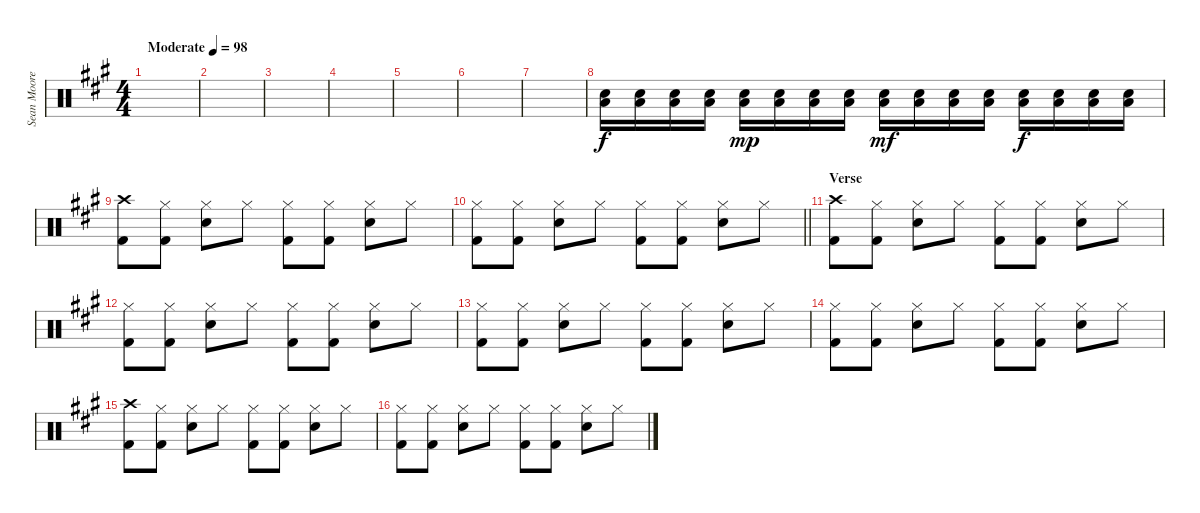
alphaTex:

\track ("Sean Moore (Drums)" "Sean Moore") {instrument percussion}
\staff {score}
\articulation defaults
\ts (4 4)
\tempo (98 "Moderate")
\clef neutral
\ks a
|
|
|
|
|
|
|
("Electric Snare (hit)" "Low Floor Tom (hit)").16 ("Electric Snare (hit)" "Low Floor Tom (hit)").16 ("Electric Snare (hit)" "Low Floor Tom (hit)").16 ("Electric Snare (hit)" "Low Floor Tom (hit)").16 ("Electric Snare (hit)" "Low Floor Tom (hit)").16{dy mp} ("Electric Snare (hit)" "Low Floor Tom (hit)").16 ("Electric Snare (hit)" "Low Floor Tom (hit)").16 ("Electric Snare (hit)" "Low Floor Tom (hit)").16 ("Electric Snare (hit)" "Low Floor Tom (hit)").16{dy mf} ("Electric Snare (hit)" "Low Floor Tom (hit)").16 ("Electric Snare (hit)" "Low Floor Tom (hit)").16 ("Electric Snare (hit)" "Low Floor Tom (hit)").16 ("Electric Snare (hit)" "Low Floor Tom (hit)").16{dy f} ("Electric Snare (hit)" "Low Floor Tom (hit)").16 ("Electric Snare (hit)" "Low Floor Tom (hit)").16 ("Electric Snare (hit)" "Low Floor Tom (hit)").16 |
("Crash high (hit)" "Kick (hit) 2").8 ("Hi-Hat (closed)" "Kick (hit) 2").8 ("Hi-Hat (closed)" "Electric Snare (hit)").8 "Hi-Hat (closed)".8 ("Hi-Hat (closed)" "Kick (hit) 2").8 ("Hi-Hat (closed)" "Kick (hit) 2").8 ("Hi-Hat (closed)" "Electric Snare (hit)").8 "Hi-Hat (closed)".8 |
\barLineRight lightlight
("Hi-Hat (closed)" "Kick (hit) 2").8 ("Hi-Hat (closed)" "Kick (hit) 2").8 ("Hi-Hat (closed)" "Electric Snare (hit)").8 "Hi-Hat (closed)".8 ("Hi-Hat (closed)" "Kick (hit) 2").8 ("Hi-Hat (closed)" "Kick (hit) 2").8 ("Hi-Hat (closed)" "Electric Snare (hit)").8 "Hi-Hat (closed)".8 |
\section ("" "Verse")
("Crash high (hit)" "Kick (hit) 2").8 ("Hi-Hat (closed)" "Kick (hit) 2").8 ("Hi-Hat (closed)" "Electric Snare (hit)").8 "Hi-Hat (closed)".8 ("Hi-Hat (closed)" "Kick (hit) 2").8 ("Hi-Hat (closed)" "Kick (hit) 2").8 ("Hi-Hat (closed)" "Electric Snare (hit)").8 "Hi-Hat (closed)".8 |
("Hi-Hat (closed)" "Kick (hit) 2").8 ("Hi-Hat (closed)" "Kick (hit) 2").8 ("Hi-Hat (closed)" "Electric Snare (hit)").8 "Hi-Hat (closed)".8 ("Hi-Hat (closed)" "Kick (hit) 2").8 ("Hi-Hat (closed)" "Kick (hit) 2").8 ("Hi-Hat (closed)" "Electric Snare (hit)").8 "Hi-Hat (closed)".8 |
("Hi-Hat (closed)" "Kick (hit) 2").8 ("Hi-Hat (closed)" "Kick (hit) 2").8 ("Hi-Hat (closed)" "Electric Snare (hit)").8 "Hi-Hat (closed)".8 ("Hi-Hat (closed)" "Kick (hit) 2").8 ("Hi-Hat (closed)" "Kick (hit) 2").8 ("Hi-Hat (closed)" "Electric Snare (hit)").8 "Hi-Hat (closed)".8 |
("Hi-Hat (closed)" "Kick (hit) 2").8 ("Hi-Hat (closed)" "Kick (hit) 2").8 ("Hi-Hat (closed)" "Electric Snare (hit)").8 "Hi-Hat (closed)".8 ("Hi-Hat (closed)" "Kick (hit) 2").8 ("Hi-Hat (closed)" "Kick (hit) 2").8 ("Hi-Hat (closed)" "Electric Snare (hit)").8 "Hi-Hat (closed)".8 |
("Crash high (hit)" "Kick (hit) 2").8 ("Hi-Hat (closed)" "Kick (hit) 2").8 ("Hi-Hat (closed)" "Electric Snare (hit)").8 "Hi-Hat (closed)".8 ("Hi-Hat (closed)" "Kick (hit) 2").8 ("Hi-Hat (closed)" "Kick (hit) 2").8 ("Hi-Hat (closed)" "Electric Snare (hit)").8 "Hi-Hat (closed)".8 |
("Hi-Hat (closed)" "Kick (hit) 2").8 ("Hi-Hat (closed)" "Kick (hit) 2").8 ("Hi-Hat (closed)" "Electric Snare (hit)").8 "Hi-Hat (closed)".8 ("Hi-Hat (closed)" "Kick (hit) 2").8 ("Hi-Hat (closed)" "Kick (hit) 2").8 ("Hi-Hat (closed)" "Electric Snare (hit)").8 "Hi-Hat (closed)".8
